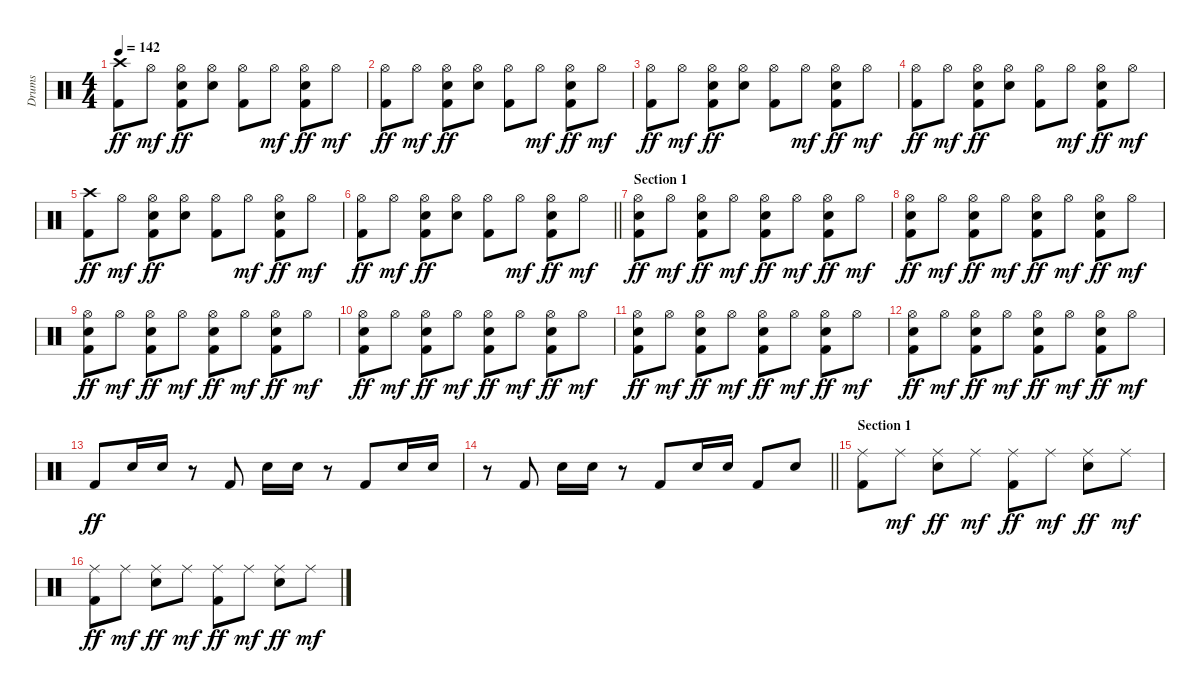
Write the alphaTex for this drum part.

\track ("Drums" "Drums") {instrument percussion}
\staff {score}
\articulation defaults
\ts (4 4)
\tempo 142
\clef neutral
\ks c
("Crash high (hit)" "Kick (hit) 2").8{dy ff} "Hi-Hat (open)".8{dy mf} ("Hi-Hat (open)" "Snare (hit) 2" "Kick (hit) 2").8{dy ff} ("Hi-Hat (open)" "Snare (hit) 2").8 ("Hi-Hat (open)" "Kick (hit) 2").8 "Hi-Hat (open)".8{dy mf} ("Hi-Hat (open)" "Snare (hit) 2" "Kick (hit) 2").8{dy ff} "Hi-Hat (open)".8{dy mf} |
("Hi-Hat (open)" "Kick (hit) 2").8{dy ff} "Hi-Hat (open)".8{dy mf} ("Hi-Hat (open)" "Snare (hit) 2" "Kick (hit) 2").8{dy ff} ("Hi-Hat (open)" "Snare (hit) 2").8 ("Hi-Hat (open)" "Kick (hit) 2").8 "Hi-Hat (open)".8{dy mf} ("Hi-Hat (open)" "Snare (hit) 2" "Kick (hit) 2").8{dy ff} "Hi-Hat (open)".8{dy mf} |
("Hi-Hat (open)" "Kick (hit) 2").8{dy ff} "Hi-Hat (open)".8{dy mf} ("Hi-Hat (open)" "Snare (hit) 2" "Kick (hit) 2").8{dy ff} ("Hi-Hat (open)" "Snare (hit) 2").8 ("Hi-Hat (open)" "Kick (hit) 2").8 "Hi-Hat (open)".8{dy mf} ("Hi-Hat (open)" "Snare (hit) 2" "Kick (hit) 2").8{dy ff} "Hi-Hat (open)".8{dy mf} |
("Hi-Hat (open)" "Kick (hit) 2").8{dy ff} "Hi-Hat (open)".8{dy mf} ("Hi-Hat (open)" "Snare (hit) 2" "Kick (hit) 2").8{dy ff} ("Hi-Hat (open)" "Snare (hit) 2").8 ("Hi-Hat (open)" "Kick (hit) 2").8 "Hi-Hat (open)".8{dy mf} ("Hi-Hat (open)" "Snare (hit) 2" "Kick (hit) 2").8{dy ff} "Hi-Hat (open)".8{dy mf} |
("Crash high (hit)" "Kick (hit) 2").8{dy ff} "Hi-Hat (open)".8{dy mf} ("Hi-Hat (open)" "Snare (hit) 2" "Kick (hit) 2").8{dy ff} ("Hi-Hat (open)" "Snare (hit) 2").8 ("Hi-Hat (open)" "Kick (hit) 2").8 "Hi-Hat (open)".8{dy mf} ("Hi-Hat (open)" "Snare (hit) 2" "Kick (hit) 2").8{dy ff} "Hi-Hat (open)".8{dy mf} |
\barLineRight lightlight
("Hi-Hat (open)" "Kick (hit) 2").8{dy ff} "Hi-Hat (open)".8{dy mf} ("Hi-Hat (open)" "Snare (hit) 2" "Kick (hit) 2").8{dy ff} ("Hi-Hat (open)" "Snare (hit) 2").8 ("Hi-Hat (open)" "Kick (hit) 2").8 "Hi-Hat (open)".8{dy mf} ("Hi-Hat (open)" "Snare (hit) 2" "Kick (hit) 2").8{dy ff} "Hi-Hat (open)".8{dy mf} |
\section ("" "Section 1")
("Hi-Hat (open)" "Snare (hit) 2" "Kick (hit) 2").8{dy ff} "Hi-Hat (open)".8{dy mf} ("Hi-Hat (open)" "Snare (hit) 2" "Kick (hit) 2").8{dy ff} "Hi-Hat (open)".8{dy mf} ("Hi-Hat (open)" "Snare (hit) 2" "Kick (hit) 2").8{dy ff} "Hi-Hat (open)".8{dy mf} ("Hi-Hat (open)" "Snare (hit) 2" "Kick (hit) 2").8{dy ff} "Hi-Hat (open)".8{dy mf} |
("Hi-Hat (open)" "Snare (hit) 2" "Kick (hit) 2").8{dy ff} "Hi-Hat (open)".8{dy mf} ("Hi-Hat (open)" "Snare (hit) 2" "Kick (hit) 2").8{dy ff} "Hi-Hat (open)".8{dy mf} ("Hi-Hat (open)" "Snare (hit) 2" "Kick (hit) 2").8{dy ff} "Hi-Hat (open)".8{dy mf} ("Hi-Hat (open)" "Snare (hit) 2" "Kick (hit) 2").8{dy ff} "Hi-Hat (open)".8{dy mf} |
("Hi-Hat (open)" "Snare (hit) 2" "Kick (hit) 2").8{dy ff} "Hi-Hat (open)".8{dy mf} ("Hi-Hat (open)" "Snare (hit) 2" "Kick (hit) 2").8{dy ff} "Hi-Hat (open)".8{dy mf} ("Hi-Hat (open)" "Snare (hit) 2" "Kick (hit) 2").8{dy ff} "Hi-Hat (open)".8{dy mf} ("Hi-Hat (open)" "Snare (hit) 2" "Kick (hit) 2").8{dy ff} "Hi-Hat (open)".8{dy mf} |
("Hi-Hat (open)" "Snare (hit) 2" "Kick (hit) 2").8{dy ff} "Hi-Hat (open)".8{dy mf} ("Hi-Hat (open)" "Snare (hit) 2" "Kick (hit) 2").8{dy ff} "Hi-Hat (open)".8{dy mf} ("Hi-Hat (open)" "Snare (hit) 2" "Kick (hit) 2").8{dy ff} "Hi-Hat (open)".8{dy mf} ("Hi-Hat (open)" "Snare (hit) 2" "Kick (hit) 2").8{dy ff} "Hi-Hat (open)".8{dy mf} |
("Hi-Hat (open)" "Snare (hit) 2" "Kick (hit) 2").8{dy ff} "Hi-Hat (open)".8{dy mf} ("Hi-Hat (open)" "Snare (hit) 2" "Kick (hit) 2").8{dy ff} "Hi-Hat (open)".8{dy mf} ("Hi-Hat (open)" "Snare (hit) 2" "Kick (hit) 2").8{dy ff} "Hi-Hat (open)".8{dy mf} ("Hi-Hat (open)" "Snare (hit) 2" "Kick (hit) 2").8{dy ff} "Hi-Hat (open)".8{dy mf} |
("Hi-Hat (open)" "Snare (hit) 2" "Kick (hit) 2").8{dy ff} "Hi-Hat (open)".8{dy mf} ("Hi-Hat (open)" "Snare (hit) 2" "Kick (hit) 2").8{dy ff} "Hi-Hat (open)".8{dy mf} ("Hi-Hat (open)" "Snare (hit) 2" "Kick (hit) 2").8{dy ff} "Hi-Hat (open)".8{dy mf} ("Hi-Hat (open)" "Snare (hit) 2" "Kick (hit) 2").8{dy ff} "Hi-Hat (open)".8{dy mf} |
"Kick (hit) 2".8{dy ff} "Snare (hit) 2".16 "Snare (hit) 2".16 r.8 "Kick (hit) 2".8 "Snare (hit) 2".16 "Snare (hit) 2".16 r.8 "Kick (hit) 2".8 "Snare (hit) 2".16 "Snare (hit) 2".16 |
\barLineRight lightlight
r.8 "Kick (hit) 2".8 "Snare (hit) 2".16 "Snare (hit) 2".16 r.8 "Kick (hit) 2".8 "Snare (hit) 2".16 "Snare (hit) 2".16 "Kick (hit) 2".8 "Snare (hit) 2".8 |
\section ("" "Section 1")
("Ride (middle)" "Kick (hit) 2").8 "Ride (middle)".8{dy mf} ("Ride (middle)" "Snare (hit) 2").8{dy ff} "Ride (middle)".8{dy mf} ("Ride (middle)" "Kick (hit) 2").8{dy ff} "Ride (middle)".8{dy mf} ("Ride (middle)" "Snare (hit) 2").8{dy ff} "Ride (middle)".8{dy mf} |
("Ride (middle)" "Kick (hit) 2").8{dy ff} "Ride (middle)".8{dy mf} ("Ride (middle)" "Snare (hit) 2").8{dy ff} "Ride (middle)".8{dy mf} ("Ride (middle)" "Kick (hit) 2").8{dy ff} "Ride (middle)".8{dy mf} ("Ride (middle)" "Snare (hit) 2").8{dy ff} "Ride (middle)".8{dy mf}
